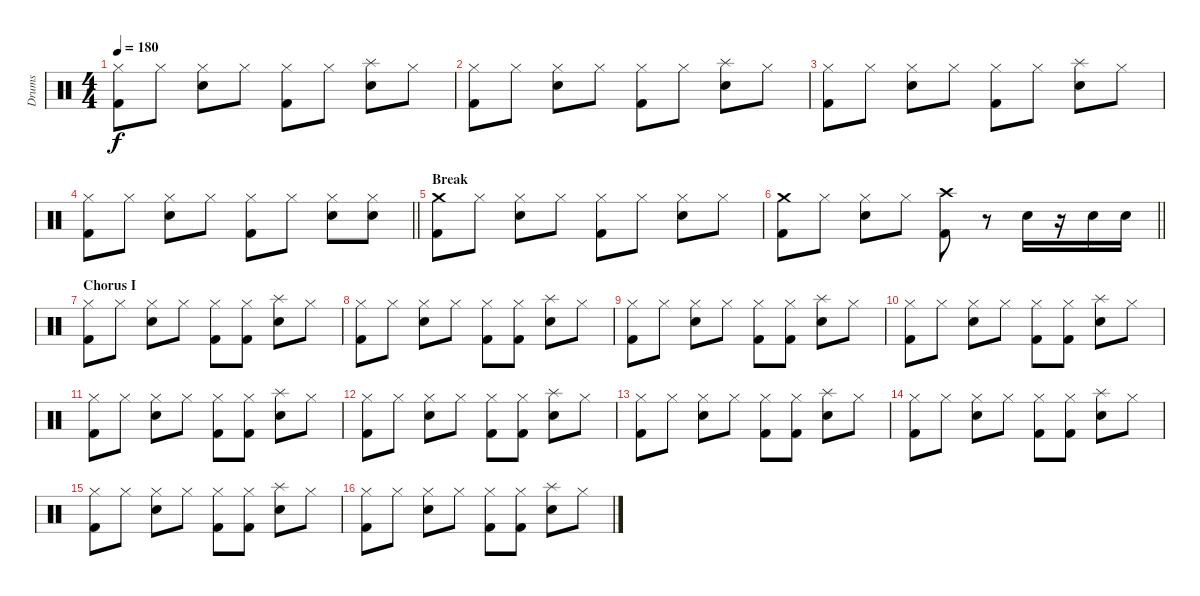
\track ("Drums" "Drums") {instrument percussion}
\staff {score}
\articulation defaults
\ts (4 4)
\tempo 180
\clef neutral
\ks c
("Hi-Hat (closed)" "Kick (hit) 2").8{dy f} "Hi-Hat (closed)".8 ("Hi-Hat (closed)" "Snare (hit) 2").8 "Hi-Hat (closed)".8 ("Hi-Hat (closed)" "Kick (hit) 2").8 "Hi-Hat (closed)".8 ("Splash (hit)" "Snare (hit) 2").8 "Hi-Hat (closed)".8 |
("Hi-Hat (closed)" "Kick (hit) 2").8 "Hi-Hat (closed)".8 ("Hi-Hat (closed)" "Snare (hit) 2").8 "Hi-Hat (closed)".8 ("Hi-Hat (closed)" "Kick (hit) 2").8 "Hi-Hat (closed)".8 ("Splash (hit)" "Snare (hit) 2").8 "Hi-Hat (closed)".8 |
("Hi-Hat (closed)" "Kick (hit) 2").8 "Hi-Hat (closed)".8 ("Hi-Hat (closed)" "Snare (hit) 2").8 "Hi-Hat (closed)".8 ("Hi-Hat (closed)" "Kick (hit) 2").8 "Hi-Hat (closed)".8 ("Splash (hit)" "Snare (hit) 2").8 "Hi-Hat (closed)".8 |
\barLineRight lightlight
("Hi-Hat (closed)" "Kick (hit) 2").8 "Hi-Hat (closed)".8 ("Hi-Hat (closed)" "Snare (hit) 2").8 "Hi-Hat (closed)".8 ("Hi-Hat (closed)" "Kick (hit) 2").8 "Hi-Hat (closed)".8 ("Hi-Hat (closed)" "Snare (hit) 2").8 ("Hi-Hat (closed)" "Snare (hit) 2").8 |
\section ("" "Break")
("Crash medium (hit)" "Kick (hit) 2").8 "Hi-Hat (closed)".8 ("Hi-Hat (closed)" "Snare (hit) 2").8 "Hi-Hat (closed)".8 ("Hi-Hat (closed)" "Kick (hit) 2").8 "Hi-Hat (closed)".8 ("Hi-Hat (closed)" "Snare (hit) 2").8 "Hi-Hat (closed)".8 |
\barLineRight lightlight
("Crash medium (hit)" "Kick (hit) 2").8 "Hi-Hat (closed)".8 ("Hi-Hat (closed)" "Snare (hit) 2").8 "Hi-Hat (closed)".8 ("Crash high (hit)" "Kick (hit) 2").8 r.8 "Snare (hit) 2".16 r.16 "Snare (hit) 2".16 "Snare (hit) 2".16 |
\section ("" "Chorus I")
("Hi-Hat (closed)" "Kick (hit) 2").8 "Hi-Hat (closed)".8 ("Hi-Hat (closed)" "Snare (hit) 2").8 "Hi-Hat (closed)".8 ("Hi-Hat (closed)" "Kick (hit) 2").8 ("Hi-Hat (closed)" "Kick (hit) 2").8 ("Splash (hit)" "Snare (hit) 2").8 "Hi-Hat (closed)".8 |
("Hi-Hat (closed)" "Kick (hit) 2").8 "Hi-Hat (closed)".8 ("Hi-Hat (closed)" "Snare (hit) 2").8 "Hi-Hat (closed)".8 ("Hi-Hat (closed)" "Kick (hit) 2").8 ("Hi-Hat (closed)" "Kick (hit) 2").8 ("Splash (hit)" "Snare (hit) 2").8 "Hi-Hat (closed)".8 |
("Hi-Hat (closed)" "Kick (hit) 2").8 "Hi-Hat (closed)".8 ("Hi-Hat (closed)" "Snare (hit) 2").8 "Hi-Hat (closed)".8 ("Hi-Hat (closed)" "Kick (hit) 2").8 ("Hi-Hat (closed)" "Kick (hit) 2").8 ("Splash (hit)" "Snare (hit) 2").8 "Hi-Hat (closed)".8 |
("Hi-Hat (closed)" "Kick (hit) 2").8 "Hi-Hat (closed)".8 ("Hi-Hat (closed)" "Snare (hit) 2").8 "Hi-Hat (closed)".8 ("Hi-Hat (closed)" "Kick (hit) 2").8 ("Hi-Hat (closed)" "Kick (hit) 2").8 ("Splash (hit)" "Snare (hit) 2").8 "Hi-Hat (closed)".8 |
("Hi-Hat (closed)" "Kick (hit) 2").8 "Hi-Hat (closed)".8 ("Hi-Hat (closed)" "Snare (hit) 2").8 "Hi-Hat (closed)".8 ("Hi-Hat (closed)" "Kick (hit) 2").8 ("Hi-Hat (closed)" "Kick (hit) 2").8 ("Splash (hit)" "Snare (hit) 2").8 "Hi-Hat (closed)".8 |
("Hi-Hat (closed)" "Kick (hit) 2").8 "Hi-Hat (closed)".8 ("Hi-Hat (closed)" "Snare (hit) 2").8 "Hi-Hat (closed)".8 ("Hi-Hat (closed)" "Kick (hit) 2").8 ("Hi-Hat (closed)" "Kick (hit) 2").8 ("Splash (hit)" "Snare (hit) 2").8 "Hi-Hat (closed)".8 |
("Hi-Hat (closed)" "Kick (hit) 2").8 "Hi-Hat (closed)".8 ("Hi-Hat (closed)" "Snare (hit) 2").8 "Hi-Hat (closed)".8 ("Hi-Hat (closed)" "Kick (hit) 2").8 ("Hi-Hat (closed)" "Kick (hit) 2").8 ("Splash (hit)" "Snare (hit) 2").8 "Hi-Hat (closed)".8 |
("Hi-Hat (closed)" "Kick (hit) 2").8 "Hi-Hat (closed)".8 ("Hi-Hat (closed)" "Snare (hit) 2").8 "Hi-Hat (closed)".8 ("Hi-Hat (closed)" "Kick (hit) 2").8 ("Hi-Hat (closed)" "Kick (hit) 2").8 ("Splash (hit)" "Snare (hit) 2").8 "Hi-Hat (closed)".8 |
("Hi-Hat (closed)" "Kick (hit) 2").8 "Hi-Hat (closed)".8 ("Hi-Hat (closed)" "Snare (hit) 2").8 "Hi-Hat (closed)".8 ("Hi-Hat (closed)" "Kick (hit) 2").8 ("Hi-Hat (closed)" "Kick (hit) 2").8 ("Splash (hit)" "Snare (hit) 2").8 "Hi-Hat (closed)".8 |
("Hi-Hat (closed)" "Kick (hit) 2").8 "Hi-Hat (closed)".8 ("Hi-Hat (closed)" "Snare (hit) 2").8 "Hi-Hat (closed)".8 ("Hi-Hat (closed)" "Kick (hit) 2").8 ("Hi-Hat (closed)" "Kick (hit) 2").8 ("Splash (hit)" "Snare (hit) 2").8 "Hi-Hat (closed)".8
